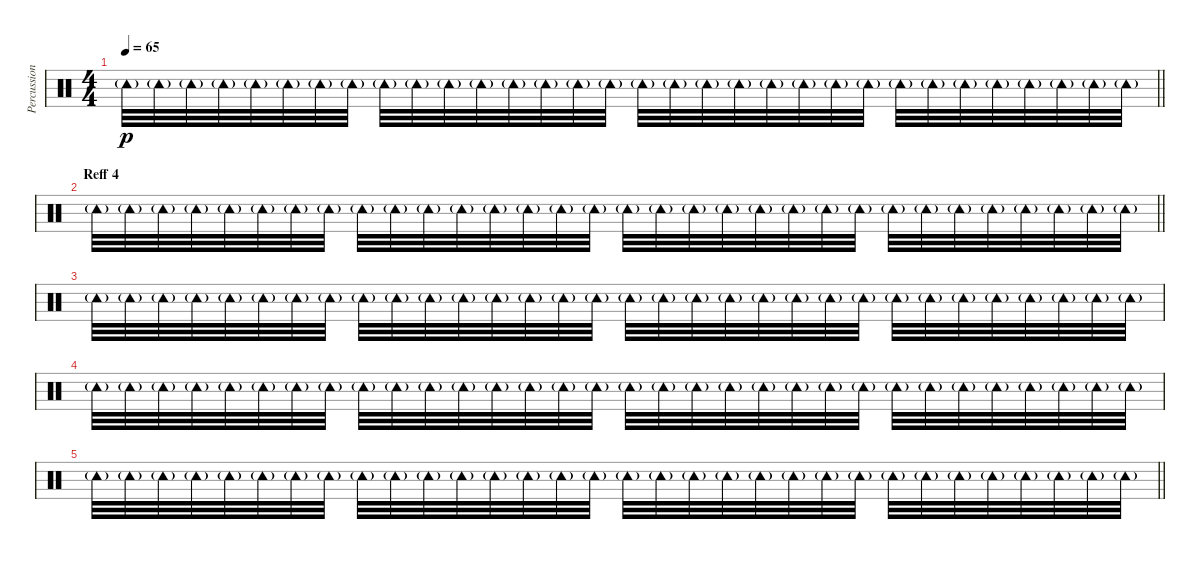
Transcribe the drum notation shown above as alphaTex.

\track ("Percussion 3 (Tamb)" "Percussion") {instrument percussion}
\staff {score}
\articulation defaults
\ts (4 4)
\tempo 65
\clef neutral
\barLineRight lightlight
\ks c "Tambourine (hit)"{g}.32{dy p} "Tambourine (hit)"{g}.32 "Tambourine (hit)"{g}.32 "Tambourine (hit)"{g}.32 "Tambourine (hit)"{g}.32 "Tambourine (hit)"{g}.32 "Tambourine (hit)"{g}.32 "Tambourine (hit)"{g}.32 "Tambourine (hit)"{g}.32 "Tambourine (hit)"{g}.32 "Tambourine (hit)"{g}.32 "Tambourine (hit)"{g}.32 "Tambourine (hit)"{g}.32 "Tambourine (hit)"{g}.32 "Tambourine (hit)"{g}.32 "Tambourine (hit)"{g}.32 "Tambourine (hit)"{g}.32 "Tambourine (hit)"{g}.32 "Tambourine (hit)"{g}.32 "Tambourine (hit)"{g}.32 "Tambourine (hit)"{g}.32 "Tambourine (hit)"{g}.32 "Tambourine (hit)"{g}.32 "Tambourine (hit)"{g}.32 "Tambourine (hit)"{g}.32 "Tambourine (hit)"{g}.32 "Tambourine (hit)"{g}.32 "Tambourine (hit)"{g}.32 "Tambourine (hit)"{g}.32 "Tambourine (hit)"{g}.32 "Tambourine (hit)"{g}.32 "Tambourine (hit)"{g}.32
|
\section ("" "Reff 4")
\barLineRight lightlight "Tambourine (hit)"{g}.32 "Tambourine (hit)"{g}.32 "Tambourine (hit)"{g}.32 "Tambourine (hit)"{g}.32 "Tambourine (hit)"{g}.32 "Tambourine (hit)"{g}.32 "Tambourine (hit)"{g}.32 "Tambourine (hit)"{g}.32 "Tambourine (hit)"{g}.32 "Tambourine (hit)"{g}.32 "Tambourine (hit)"{g}.32 "Tambourine (hit)"{g}.32 "Tambourine (hit)"{g}.32 "Tambourine (hit)"{g}.32 "Tambourine (hit)"{g}.32 "Tambourine (hit)"{g}.32 "Tambourine (hit)"{g}.32 "Tambourine (hit)"{g}.32 "Tambourine (hit)"{g}.32 "Tambourine (hit)"{g}.32 "Tambourine (hit)"{g}.32 "Tambourine (hit)"{g}.32 "Tambourine (hit)"{g}.32 "Tambourine (hit)"{g}.32 "Tambourine (hit)"{g}.32 "Tambourine (hit)"{g}.32 "Tambourine (hit)"{g}.32 "Tambourine (hit)"{g}.32 "Tambourine (hit)"{g}.32 "Tambourine (hit)"{g}.32 "Tambourine (hit)"{g}.32 "Tambourine (hit)"{g}.32
|
"Tambourine (hit)"{g}.32 "Tambourine (hit)"{g}.32 "Tambourine (hit)"{g}.32 "Tambourine (hit)"{g}.32 "Tambourine (hit)"{g}.32 "Tambourine (hit)"{g}.32 "Tambourine (hit)"{g}.32 "Tambourine (hit)"{g}.32 "Tambourine (hit)"{g}.32 "Tambourine (hit)"{g}.32 "Tambourine (hit)"{g}.32 "Tambourine (hit)"{g}.32 "Tambourine (hit)"{g}.32 "Tambourine (hit)"{g}.32 "Tambourine (hit)"{g}.32 "Tambourine (hit)"{g}.32 "Tambourine (hit)"{g}.32 "Tambourine (hit)"{g}.32 "Tambourine (hit)"{g}.32 "Tambourine (hit)"{g}.32 "Tambourine (hit)"{g}.32 "Tambourine (hit)"{g}.32 "Tambourine (hit)"{g}.32 "Tambourine (hit)"{g}.32 "Tambourine (hit)"{g}.32 "Tambourine (hit)"{g}.32 "Tambourine (hit)"{g}.32 "Tambourine (hit)"{g}.32 "Tambourine (hit)"{g}.32 "Tambourine (hit)"{g}.32 "Tambourine (hit)"{g}.32 "Tambourine (hit)"{g}.32 |
"Tambourine (hit)"{g}.32 "Tambourine (hit)"{g}.32 "Tambourine (hit)"{g}.32 "Tambourine (hit)"{g}.32 "Tambourine (hit)"{g}.32 "Tambourine (hit)"{g}.32 "Tambourine (hit)"{g}.32 "Tambourine (hit)"{g}.32 "Tambourine (hit)"{g}.32 "Tambourine (hit)"{g}.32 "Tambourine (hit)"{g}.32 "Tambourine (hit)"{g}.32 "Tambourine (hit)"{g}.32 "Tambourine (hit)"{g}.32 "Tambourine (hit)"{g}.32 "Tambourine (hit)"{g}.32 "Tambourine (hit)"{g}.32 "Tambourine (hit)"{g}.32 "Tambourine (hit)"{g}.32 "Tambourine (hit)"{g}.32 "Tambourine (hit)"{g}.32 "Tambourine (hit)"{g}.32 "Tambourine (hit)"{g}.32 "Tambourine (hit)"{g}.32 "Tambourine (hit)"{g}.32 "Tambourine (hit)"{g}.32 "Tambourine (hit)"{g}.32 "Tambourine (hit)"{g}.32 "Tambourine (hit)"{g}.32 "Tambourine (hit)"{g}.32 "Tambourine (hit)"{g}.32 "Tambourine (hit)"{g}.32 |
\barLineRight lightlight "Tambourine (hit)"{g}.32 "Tambourine (hit)"{g}.32 "Tambourine (hit)"{g}.32 "Tambourine (hit)"{g}.32 "Tambourine (hit)"{g}.32 "Tambourine (hit)"{g}.32 "Tambourine (hit)"{g}.32 "Tambourine (hit)"{g}.32 "Tambourine (hit)"{g}.32 "Tambourine (hit)"{g}.32 "Tambourine (hit)"{g}.32 "Tambourine (hit)"{g}.32 "Tambourine (hit)"{g}.32 "Tambourine (hit)"{g}.32 "Tambourine (hit)"{g}.32 "Tambourine (hit)"{g}.32 "Tambourine (hit)"{g}.32 "Tambourine (hit)"{g}.32 "Tambourine (hit)"{g}.32 "Tambourine (hit)"{g}.32 "Tambourine (hit)"{g}.32 "Tambourine (hit)"{g}.32 "Tambourine (hit)"{g}.32 "Tambourine (hit)"{g}.32 "Tambourine (hit)"{g}.32 "Tambourine (hit)"{g}.32 "Tambourine (hit)"{g}.32 "Tambourine (hit)"{g}.32 "Tambourine (hit)"{g}.32 "Tambourine (hit)"{g}.32 "Tambourine (hit)"{g}.32 "Tambourine (hit)"{g}.32
